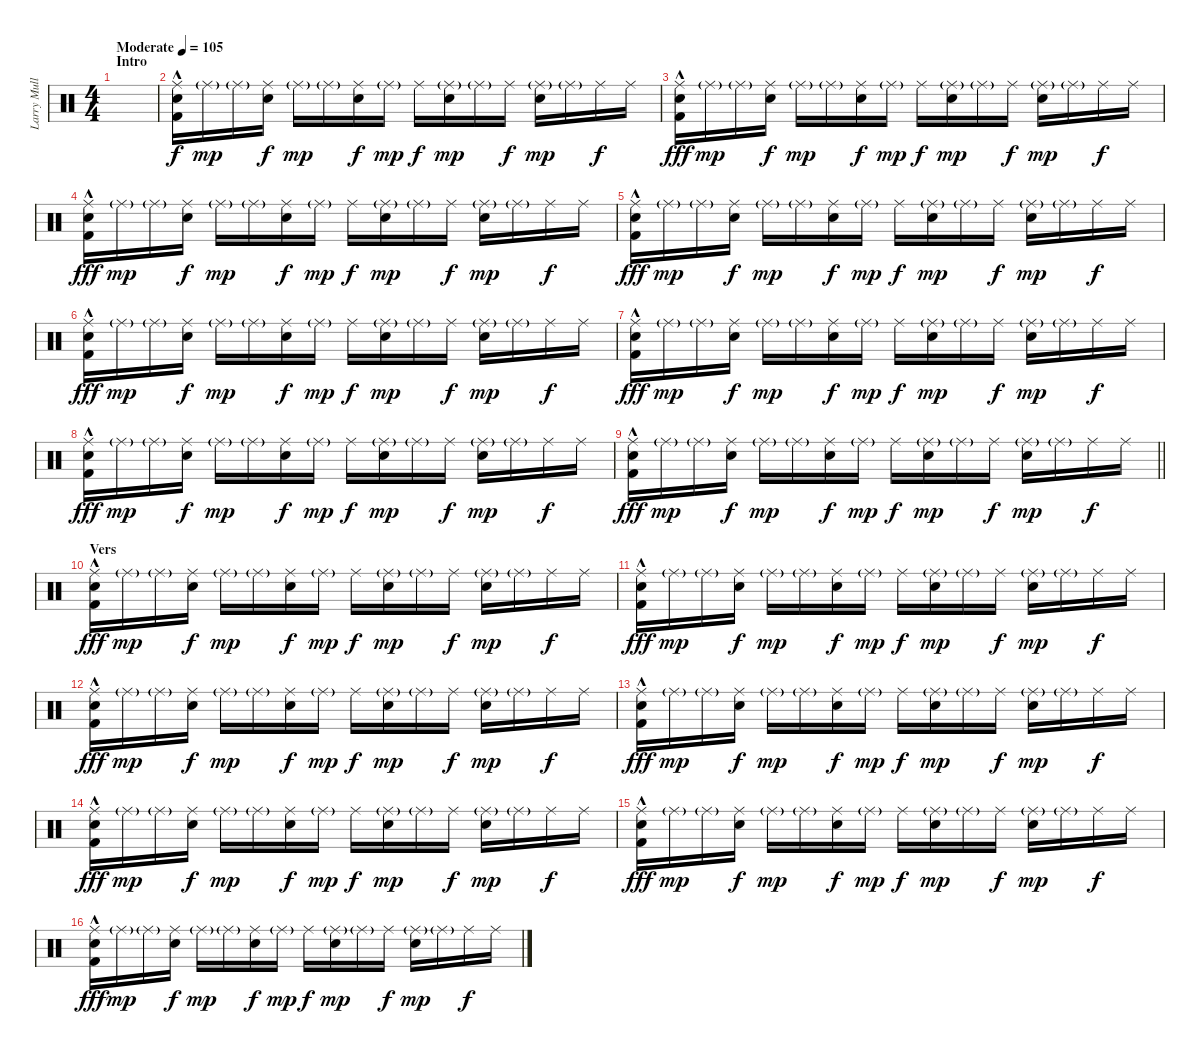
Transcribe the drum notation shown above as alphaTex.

\track ("Larry Mullen Jr." "Larry Mull") {instrument percussion}
\staff {score}
\articulation defaults
\ts (4 4)
\section ("" "Intro")
\tempo (105 "Moderate")
\clef neutral
\ks c
|
("Ride (middle)" "Electric Snare (hit)" "Kick (hit) 2"{hac}).16 "Ride (middle)"{g}.16{dy mp} "Ride (middle)"{g}.16 ("Ride (middle)" "Electric Snare (hit)").16{dy f} "Ride (middle)"{g}.16{dy mp} "Ride (middle)"{g}.16 ("Ride (middle)" "Electric Snare (hit)").16{dy f} "Ride (middle)"{g}.16{dy mp} "Ride (middle)".16{dy f} ("Ride (middle)"{g} "Electric Snare (hit)").16{dy mp} "Ride (middle)"{g}.16 "Ride (middle)".16{dy f} ("Ride (middle)"{g} "Electric Snare (hit)").16{dy mp} "Ride (middle)"{g}.16 "Ride (middle)".16{dy f} "Ride (middle)".16 |
("Ride (middle)" "Electric Snare (hit)" "Kick (hit) 2"{hac}).16{dy fff} "Ride (middle)"{g}.16{dy mp} "Ride (middle)"{g}.16 ("Ride (middle)" "Electric Snare (hit)").16{dy f} "Ride (middle)"{g}.16{dy mp} "Ride (middle)"{g}.16 ("Ride (middle)" "Electric Snare (hit)").16{dy f} "Ride (middle)"{g}.16{dy mp} "Ride (middle)".16{dy f} ("Ride (middle)"{g} "Electric Snare (hit)").16{dy mp} "Ride (middle)"{g}.16 "Ride (middle)".16{dy f} ("Ride (middle)"{g} "Electric Snare (hit)").16{dy mp} "Ride (middle)"{g}.16 "Ride (middle)".16{dy f} "Ride (middle)".16 |
("Ride (middle)" "Electric Snare (hit)" "Kick (hit) 2"{hac}).16{dy fff} "Ride (middle)"{g}.16{dy mp} "Ride (middle)"{g}.16 ("Ride (middle)" "Electric Snare (hit)").16{dy f} "Ride (middle)"{g}.16{dy mp} "Ride (middle)"{g}.16 ("Ride (middle)" "Electric Snare (hit)").16{dy f} "Ride (middle)"{g}.16{dy mp} "Ride (middle)".16{dy f} ("Ride (middle)"{g} "Electric Snare (hit)").16{dy mp} "Ride (middle)"{g}.16 "Ride (middle)".16{dy f} ("Ride (middle)"{g} "Electric Snare (hit)").16{dy mp} "Ride (middle)"{g}.16 "Ride (middle)".16{dy f} "Ride (middle)".16 |
("Ride (middle)" "Electric Snare (hit)" "Kick (hit) 2"{hac}).16{dy fff} "Ride (middle)"{g}.16{dy mp} "Ride (middle)"{g}.16 ("Ride (middle)" "Electric Snare (hit)").16{dy f} "Ride (middle)"{g}.16{dy mp} "Ride (middle)"{g}.16 ("Ride (middle)" "Electric Snare (hit)").16{dy f} "Ride (middle)"{g}.16{dy mp} "Ride (middle)".16{dy f} ("Ride (middle)"{g} "Electric Snare (hit)").16{dy mp} "Ride (middle)"{g}.16 "Ride (middle)".16{dy f} ("Ride (middle)"{g} "Electric Snare (hit)").16{dy mp} "Ride (middle)"{g}.16 "Ride (middle)".16{dy f} "Ride (middle)".16 |
("Ride (middle)" "Electric Snare (hit)" "Kick (hit) 2"{hac}).16{dy fff} "Ride (middle)"{g}.16{dy mp} "Ride (middle)"{g}.16 ("Ride (middle)" "Electric Snare (hit)").16{dy f} "Ride (middle)"{g}.16{dy mp} "Ride (middle)"{g}.16 ("Ride (middle)" "Electric Snare (hit)").16{dy f} "Ride (middle)"{g}.16{dy mp} "Ride (middle)".16{dy f} ("Ride (middle)"{g} "Electric Snare (hit)").16{dy mp} "Ride (middle)"{g}.16 "Ride (middle)".16{dy f} ("Ride (middle)"{g} "Electric Snare (hit)").16{dy mp} "Ride (middle)"{g}.16 "Ride (middle)".16{dy f} "Ride (middle)".16 |
("Ride (middle)" "Electric Snare (hit)" "Kick (hit) 2"{hac}).16{dy fff} "Ride (middle)"{g}.16{dy mp} "Ride (middle)"{g}.16 ("Ride (middle)" "Electric Snare (hit)").16{dy f} "Ride (middle)"{g}.16{dy mp} "Ride (middle)"{g}.16 ("Ride (middle)" "Electric Snare (hit)").16{dy f} "Ride (middle)"{g}.16{dy mp} "Ride (middle)".16{dy f} ("Ride (middle)"{g} "Electric Snare (hit)").16{dy mp} "Ride (middle)"{g}.16 "Ride (middle)".16{dy f} ("Ride (middle)"{g} "Electric Snare (hit)").16{dy mp} "Ride (middle)"{g}.16 "Ride (middle)".16{dy f} "Ride (middle)".16 |
("Ride (middle)" "Electric Snare (hit)" "Kick (hit) 2"{hac}).16{dy fff} "Ride (middle)"{g}.16{dy mp} "Ride (middle)"{g}.16 ("Ride (middle)" "Electric Snare (hit)").16{dy f} "Ride (middle)"{g}.16{dy mp} "Ride (middle)"{g}.16 ("Ride (middle)" "Electric Snare (hit)").16{dy f} "Ride (middle)"{g}.16{dy mp} "Ride (middle)".16{dy f} ("Ride (middle)"{g} "Electric Snare (hit)").16{dy mp} "Ride (middle)"{g}.16 "Ride (middle)".16{dy f} ("Ride (middle)"{g} "Electric Snare (hit)").16{dy mp} "Ride (middle)"{g}.16 "Ride (middle)".16{dy f} "Ride (middle)".16 |
\barLineRight lightlight
("Ride (middle)" "Electric Snare (hit)" "Kick (hit) 2"{hac}).16{dy fff} "Ride (middle)"{g}.16{dy mp} "Ride (middle)"{g}.16 ("Ride (middle)" "Electric Snare (hit)").16{dy f} "Ride (middle)"{g}.16{dy mp} "Ride (middle)"{g}.16 ("Ride (middle)" "Electric Snare (hit)").16{dy f} "Ride (middle)"{g}.16{dy mp} "Ride (middle)".16{dy f} ("Ride (middle)"{g} "Electric Snare (hit)").16{dy mp} "Ride (middle)"{g}.16 "Ride (middle)".16{dy f} ("Ride (middle)"{g} "Electric Snare (hit)").16{dy mp} "Ride (middle)"{g}.16 "Ride (middle)".16{dy f} "Ride (middle)".16 |
\section ("" "Vers")
("Ride (middle)" "Electric Snare (hit)" "Kick (hit) 2"{hac}).16{dy fff} "Ride (middle)"{g}.16{dy mp} "Ride (middle)"{g}.16 ("Ride (middle)" "Electric Snare (hit)").16{dy f} "Ride (middle)"{g}.16{dy mp} "Ride (middle)"{g}.16 ("Ride (middle)" "Electric Snare (hit)").16{dy f} "Ride (middle)"{g}.16{dy mp} "Ride (middle)".16{dy f} ("Ride (middle)"{g} "Electric Snare (hit)").16{dy mp} "Ride (middle)"{g}.16 "Ride (middle)".16{dy f} ("Ride (middle)"{g} "Electric Snare (hit)").16{dy mp} "Ride (middle)"{g}.16 "Ride (middle)".16{dy f} "Ride (middle)".16 |
("Ride (middle)" "Electric Snare (hit)" "Kick (hit) 2"{hac}).16{dy fff} "Ride (middle)"{g}.16{dy mp} "Ride (middle)"{g}.16 ("Ride (middle)" "Electric Snare (hit)").16{dy f} "Ride (middle)"{g}.16{dy mp} "Ride (middle)"{g}.16 ("Ride (middle)" "Electric Snare (hit)").16{dy f} "Ride (middle)"{g}.16{dy mp} "Ride (middle)".16{dy f} ("Ride (middle)"{g} "Electric Snare (hit)").16{dy mp} "Ride (middle)"{g}.16 "Ride (middle)".16{dy f} ("Ride (middle)"{g} "Electric Snare (hit)").16{dy mp} "Ride (middle)"{g}.16 "Ride (middle)".16{dy f} "Ride (middle)".16 |
("Ride (middle)" "Electric Snare (hit)" "Kick (hit) 2"{hac}).16{dy fff} "Ride (middle)"{g}.16{dy mp} "Ride (middle)"{g}.16 ("Ride (middle)" "Electric Snare (hit)").16{dy f} "Ride (middle)"{g}.16{dy mp} "Ride (middle)"{g}.16 ("Ride (middle)" "Electric Snare (hit)").16{dy f} "Ride (middle)"{g}.16{dy mp} "Ride (middle)".16{dy f} ("Ride (middle)"{g} "Electric Snare (hit)").16{dy mp} "Ride (middle)"{g}.16 "Ride (middle)".16{dy f} ("Ride (middle)"{g} "Electric Snare (hit)").16{dy mp} "Ride (middle)"{g}.16 "Ride (middle)".16{dy f} "Ride (middle)".16 |
("Ride (middle)" "Electric Snare (hit)" "Kick (hit) 2"{hac}).16{dy fff} "Ride (middle)"{g}.16{dy mp} "Ride (middle)"{g}.16 ("Ride (middle)" "Electric Snare (hit)").16{dy f} "Ride (middle)"{g}.16{dy mp} "Ride (middle)"{g}.16 ("Ride (middle)" "Electric Snare (hit)").16{dy f} "Ride (middle)"{g}.16{dy mp} "Ride (middle)".16{dy f} ("Ride (middle)"{g} "Electric Snare (hit)").16{dy mp} "Ride (middle)"{g}.16 "Ride (middle)".16{dy f} ("Ride (middle)"{g} "Electric Snare (hit)").16{dy mp} "Ride (middle)"{g}.16 "Ride (middle)".16{dy f} "Ride (middle)".16 |
("Ride (middle)" "Electric Snare (hit)" "Kick (hit) 2"{hac}).16{dy fff} "Ride (middle)"{g}.16{dy mp} "Ride (middle)"{g}.16 ("Ride (middle)" "Electric Snare (hit)").16{dy f} "Ride (middle)"{g}.16{dy mp} "Ride (middle)"{g}.16 ("Ride (middle)" "Electric Snare (hit)").16{dy f} "Ride (middle)"{g}.16{dy mp} "Ride (middle)".16{dy f} ("Ride (middle)"{g} "Electric Snare (hit)").16{dy mp} "Ride (middle)"{g}.16 "Ride (middle)".16{dy f} ("Ride (middle)"{g} "Electric Snare (hit)").16{dy mp} "Ride (middle)"{g}.16 "Ride (middle)".16{dy f} "Ride (middle)".16 |
("Ride (middle)" "Electric Snare (hit)" "Kick (hit) 2"{hac}).16{dy fff} "Ride (middle)"{g}.16{dy mp} "Ride (middle)"{g}.16 ("Ride (middle)" "Electric Snare (hit)").16{dy f} "Ride (middle)"{g}.16{dy mp} "Ride (middle)"{g}.16 ("Ride (middle)" "Electric Snare (hit)").16{dy f} "Ride (middle)"{g}.16{dy mp} "Ride (middle)".16{dy f} ("Ride (middle)"{g} "Electric Snare (hit)").16{dy mp} "Ride (middle)"{g}.16 "Ride (middle)".16{dy f} ("Ride (middle)"{g} "Electric Snare (hit)").16{dy mp} "Ride (middle)"{g}.16 "Ride (middle)".16{dy f} "Ride (middle)".16 |
("Ride (middle)" "Electric Snare (hit)" "Kick (hit) 2"{hac}).16{dy fff} "Ride (middle)"{g}.16{dy mp} "Ride (middle)"{g}.16 ("Ride (middle)" "Electric Snare (hit)").16{dy f} "Ride (middle)"{g}.16{dy mp} "Ride (middle)"{g}.16 ("Ride (middle)" "Electric Snare (hit)").16{dy f} "Ride (middle)"{g}.16{dy mp} "Ride (middle)".16{dy f} ("Ride (middle)"{g} "Electric Snare (hit)").16{dy mp} "Ride (middle)"{g}.16 "Ride (middle)".16{dy f} ("Ride (middle)"{g} "Electric Snare (hit)").16{dy mp} "Ride (middle)"{g}.16 "Ride (middle)".16{dy f} "Ride (middle)".16
